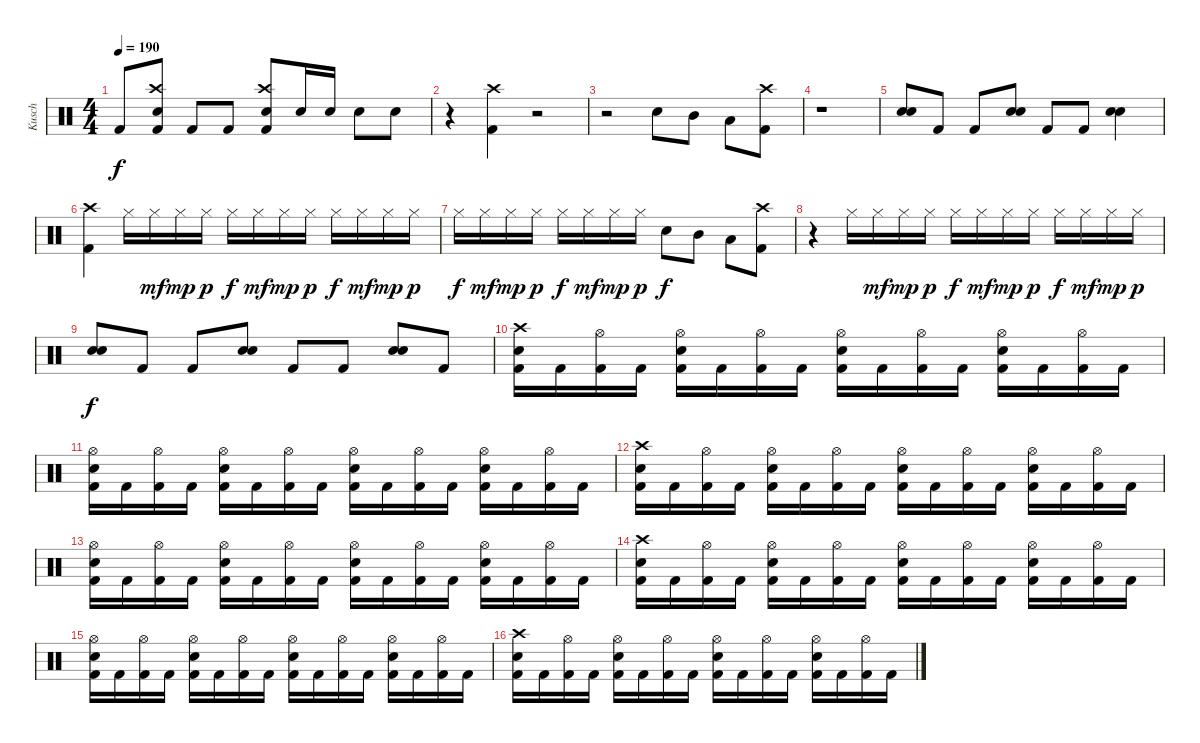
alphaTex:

\track ("Kusch" "Kusch") {instrument percussion}
\staff {score}
\articulation defaults
\ts (4 4)
\tempo 190
\clef neutral
\ks c "Kick (hit) 2".8{dy f}
("Crash high (hit)" "Electric Snare (hit)" "Kick (hit) 2").8 "Kick (hit) 2".8 "Kick (hit) 2".8 ("Crash high (hit)" "Electric Snare (hit)" "Kick (hit) 2").8 "Electric Snare (hit)".16 "Electric Snare (hit)".16 "Electric Snare (hit)".8 "Electric Snare (hit)".8 |
r.4 ("Crash high (hit)" "Kick (hit) 2").4 r.2 |
r.2 "Electric Snare (hit)".8 "Mid Tom (hit)".8 "Low Tom (hit)".8 ("Crash high (hit)" "Kick (hit) 2").8 |
r.1 |
("Electric Snare (hit)" "Electric Snare (hit)").8{bd 240} "Kick (hit) 2".8 "Kick (hit) 2".8 ("Electric Snare (hit)" "Electric Snare (hit)").8{bd 240} "Kick (hit) 2".8 "Kick (hit) 2".8 ("Electric Snare (hit)" "Electric Snare (hit)").4{bd 240} |
("Crash high (hit)" "Kick (hit) 2").4 "Hi-Hat (closed)".16 "Hi-Hat (closed)".16{dy mf} "Hi-Hat (closed)".16{dy mp} "Hi-Hat (closed)".16{dy p} "Hi-Hat (closed)".16{dy f} "Hi-Hat (closed)".16{dy mf} "Hi-Hat (closed)".16{dy mp} "Hi-Hat (closed)".16{dy p} "Hi-Hat (closed)".16{dy f} "Hi-Hat (closed)".16{dy mf} "Hi-Hat (closed)".16{dy mp} "Hi-Hat (closed)".16{dy p} |
"Hi-Hat (closed)".16{dy f} "Hi-Hat (closed)".16{dy mf} "Hi-Hat (closed)".16{dy mp} "Hi-Hat (closed)".16{dy p} "Hi-Hat (closed)".16{dy f} "Hi-Hat (closed)".16{dy mf} "Hi-Hat (closed)".16{dy mp} "Hi-Hat (closed)".16{dy p} "Electric Snare (hit)".8{dy f} "Mid Tom (hit)".8 "Low Tom (hit)".8 ("Crash high (hit)" "Kick (hit) 2").8 |
r.4 "Hi-Hat (closed)".16 "Hi-Hat (closed)".16{dy mf} "Hi-Hat (closed)".16{dy mp} "Hi-Hat (closed)".16{dy p} "Hi-Hat (closed)".16{dy f} "Hi-Hat (closed)".16{dy mf} "Hi-Hat (closed)".16{dy mp} "Hi-Hat (closed)".16{dy p} "Hi-Hat (closed)".16{dy f} "Hi-Hat (closed)".16{dy mf} "Hi-Hat (closed)".16{dy mp} "Hi-Hat (closed)".16{dy p} |
("Electric Snare (hit)" "Electric Snare (hit)").8{bd 240 dy f} "Kick (hit) 2".8 "Kick (hit) 2".8 ("Electric Snare (hit)" "Electric Snare (hit)").8{bd 240} "Kick (hit) 2".8 "Kick (hit) 2".8 ("Electric Snare (hit)" "Electric Snare (hit)").8{bd 240} "Kick (hit) 2".8 |
("Crash high (hit)" "Electric Snare (hit)" "Kick (hit) 2").16 "Kick (hit) 2".16 ("Hi-Hat (open)" "Kick (hit) 2").16 "Kick (hit) 2".16 ("Hi-Hat (open)" "Electric Snare (hit)" "Kick (hit) 2").16 "Kick (hit) 2".16 ("Hi-Hat (open)" "Kick (hit) 2").16 "Kick (hit) 2".16 ("Hi-Hat (open)" "Electric Snare (hit)" "Kick (hit) 2").16 "Kick (hit) 2".16 ("Hi-Hat (open)" "Kick (hit) 2").16 "Kick (hit) 2".16 ("Hi-Hat (open)" "Electric Snare (hit)" "Kick (hit) 2").16 "Kick (hit) 2".16 ("Hi-Hat (open)" "Kick (hit) 2").16 "Kick (hit) 2".16 |
("Hi-Hat (open)" "Electric Snare (hit)" "Kick (hit) 2").16 "Kick (hit) 2".16 ("Hi-Hat (open)" "Kick (hit) 2").16 "Kick (hit) 2".16 ("Hi-Hat (open)" "Electric Snare (hit)" "Kick (hit) 2").16 "Kick (hit) 2".16 ("Hi-Hat (open)" "Kick (hit) 2").16 "Kick (hit) 2".16 ("Hi-Hat (open)" "Electric Snare (hit)" "Kick (hit) 2").16 "Kick (hit) 2".16 ("Hi-Hat (open)" "Kick (hit) 2").16 "Kick (hit) 2".16 ("Hi-Hat (open)" "Electric Snare (hit)" "Kick (hit) 2").16 "Kick (hit) 2".16 ("Hi-Hat (open)" "Kick (hit) 2").16 "Kick (hit) 2".16 |
("Crash high (hit)" "Electric Snare (hit)" "Kick (hit) 2").16 "Kick (hit) 2".16 ("Hi-Hat (open)" "Kick (hit) 2").16 "Kick (hit) 2".16 ("Hi-Hat (open)" "Electric Snare (hit)" "Kick (hit) 2").16 "Kick (hit) 2".16 ("Hi-Hat (open)" "Kick (hit) 2").16 "Kick (hit) 2".16 ("Hi-Hat (open)" "Electric Snare (hit)" "Kick (hit) 2").16 "Kick (hit) 2".16 ("Hi-Hat (open)" "Kick (hit) 2").16 "Kick (hit) 2".16 ("Hi-Hat (open)" "Electric Snare (hit)" "Kick (hit) 2").16 "Kick (hit) 2".16 ("Hi-Hat (open)" "Kick (hit) 2").16 "Kick (hit) 2".16 |
("Hi-Hat (open)" "Electric Snare (hit)" "Kick (hit) 2").16 "Kick (hit) 2".16 ("Hi-Hat (open)" "Kick (hit) 2").16 "Kick (hit) 2".16 ("Hi-Hat (open)" "Electric Snare (hit)" "Kick (hit) 2").16 "Kick (hit) 2".16 ("Hi-Hat (open)" "Kick (hit) 2").16 "Kick (hit) 2".16 ("Hi-Hat (open)" "Electric Snare (hit)" "Kick (hit) 2").16 "Kick (hit) 2".16 ("Hi-Hat (open)" "Kick (hit) 2").16 "Kick (hit) 2".16 ("Hi-Hat (open)" "Electric Snare (hit)" "Kick (hit) 2").16 "Kick (hit) 2".16 ("Hi-Hat (open)" "Kick (hit) 2").16 "Kick (hit) 2".16 |
("Crash high (hit)" "Electric Snare (hit)" "Kick (hit) 2").16 "Kick (hit) 2".16 ("Hi-Hat (open)" "Kick (hit) 2").16 "Kick (hit) 2".16 ("Hi-Hat (open)" "Electric Snare (hit)" "Kick (hit) 2").16 "Kick (hit) 2".16 ("Hi-Hat (open)" "Kick (hit) 2").16 "Kick (hit) 2".16 ("Hi-Hat (open)" "Electric Snare (hit)" "Kick (hit) 2").16 "Kick (hit) 2".16 ("Hi-Hat (open)" "Kick (hit) 2").16 "Kick (hit) 2".16 ("Hi-Hat (open)" "Electric Snare (hit)" "Kick (hit) 2").16 "Kick (hit) 2".16 ("Hi-Hat (open)" "Kick (hit) 2").16 "Kick (hit) 2".16 |
("Hi-Hat (open)" "Electric Snare (hit)" "Kick (hit) 2").16 "Kick (hit) 2".16 ("Hi-Hat (open)" "Kick (hit) 2").16 "Kick (hit) 2".16 ("Hi-Hat (open)" "Electric Snare (hit)" "Kick (hit) 2").16 "Kick (hit) 2".16 ("Hi-Hat (open)" "Kick (hit) 2").16 "Kick (hit) 2".16 ("Hi-Hat (open)" "Electric Snare (hit)" "Kick (hit) 2").16 "Kick (hit) 2".16 ("Hi-Hat (open)" "Kick (hit) 2").16 "Kick (hit) 2".16 ("Hi-Hat (open)" "Electric Snare (hit)" "Kick (hit) 2").16 "Kick (hit) 2".16 ("Hi-Hat (open)" "Kick (hit) 2").16 "Kick (hit) 2".16 |
("Crash high (hit)" "Electric Snare (hit)" "Kick (hit) 2").16 "Kick (hit) 2".16 ("Hi-Hat (open)" "Kick (hit) 2").16 "Kick (hit) 2".16 ("Hi-Hat (open)" "Electric Snare (hit)" "Kick (hit) 2").16 "Kick (hit) 2".16 ("Hi-Hat (open)" "Kick (hit) 2").16 "Kick (hit) 2".16 ("Hi-Hat (open)" "Electric Snare (hit)" "Kick (hit) 2").16 "Kick (hit) 2".16 ("Hi-Hat (open)" "Kick (hit) 2").16 "Kick (hit) 2".16 ("Hi-Hat (open)" "Electric Snare (hit)" "Kick (hit) 2").16 "Kick (hit) 2".16 ("Hi-Hat (open)" "Kick (hit) 2").16 "Kick (hit) 2".16
